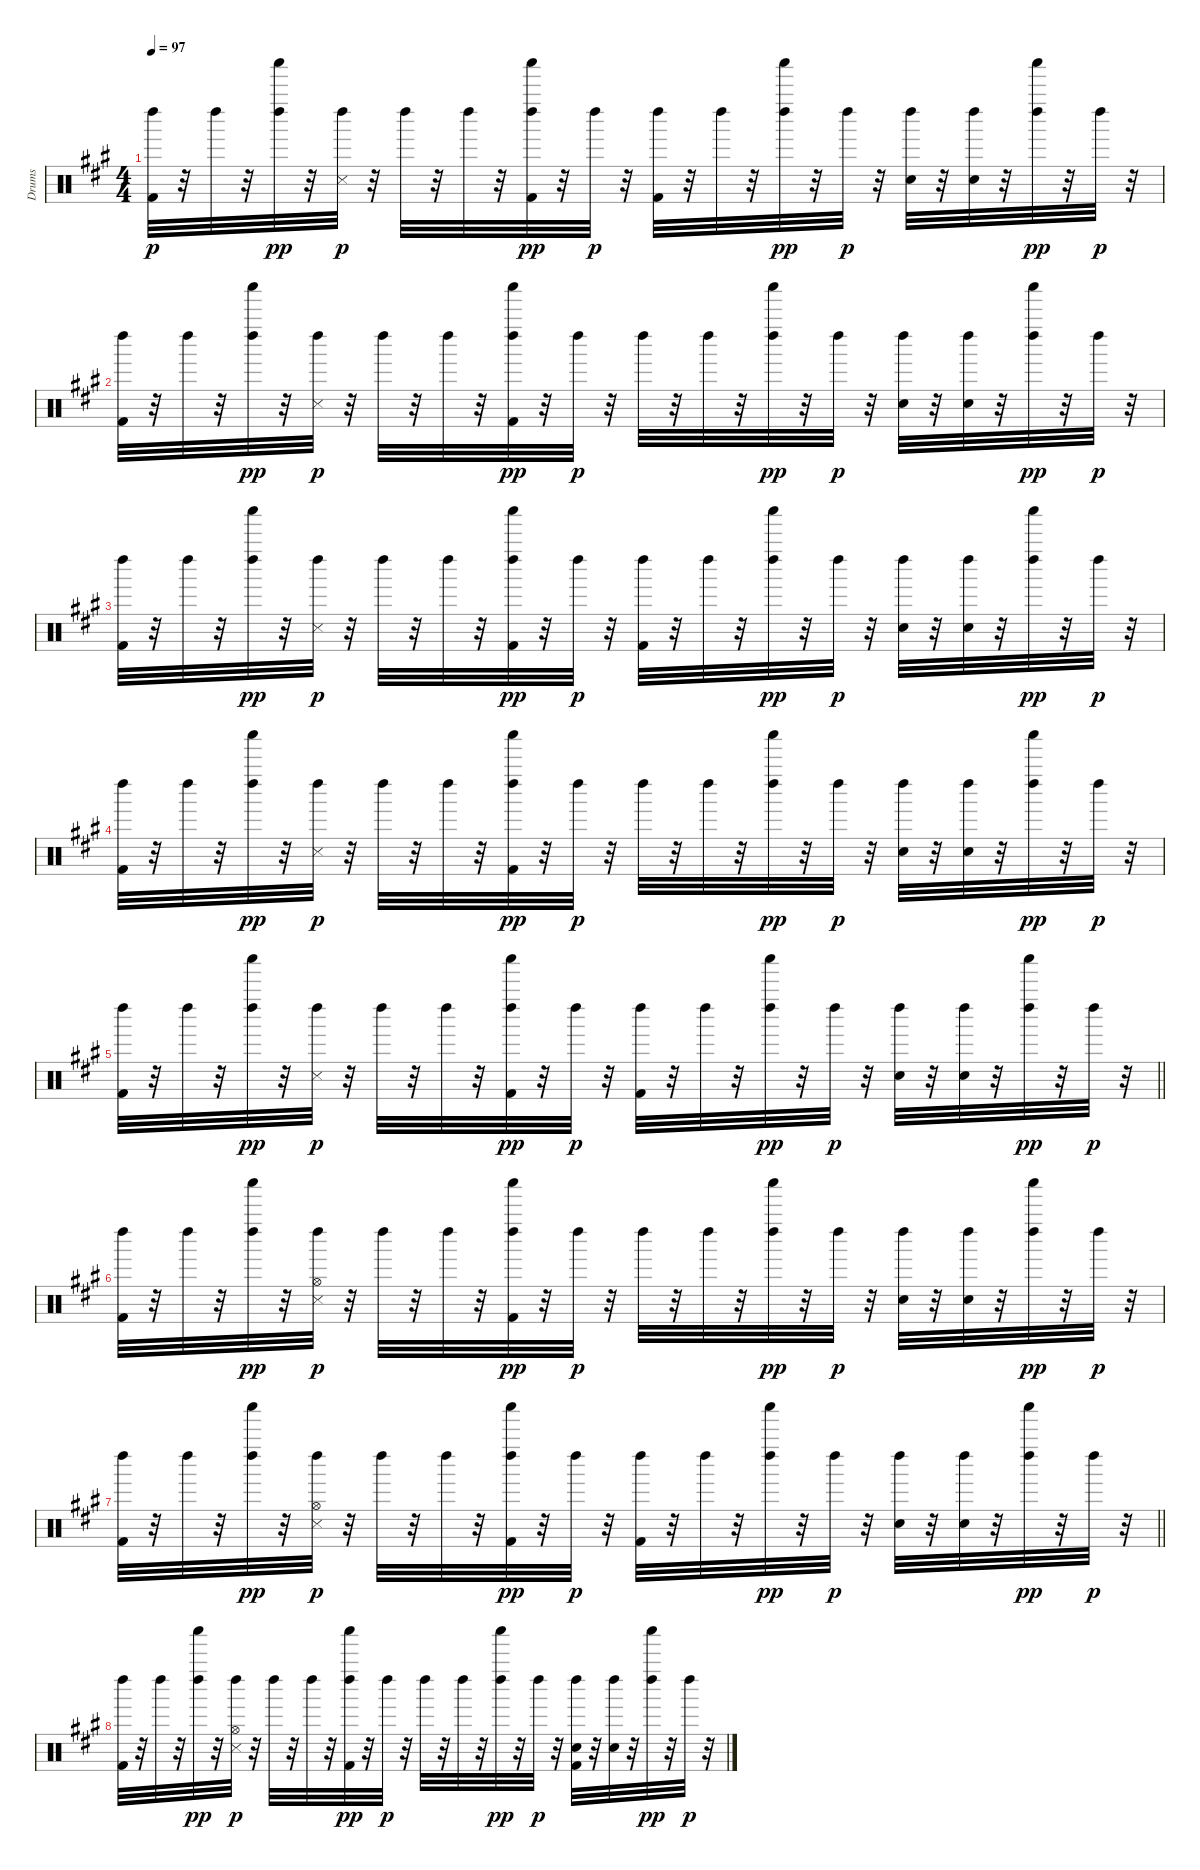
\track ("Drums" "Drums") {instrument percussion}
\staff {score}
\articulation defaults
\ts (4 4)
\tempo 97
\clef neutral
\ks a
("Kick (hit) 2" "Left Maraca (hit)").32{dy p} r.32 "Left Maraca (hit)".32 r.32 ("Shaker (hit)" "Left Maraca (hit)").32{dy pp} r.32 ("Snare (side stick) 3" "Left Maraca (hit)").32{dy p} r.32 "Left Maraca (hit)".32 r.32 "Left Maraca (hit)".32 r.32 ("Kick (hit) 2" "Shaker (hit)" "Left Maraca (hit)").32{dy pp} r.32 "Left Maraca (hit)".32{dy p} r.32 ("Kick (hit) 2" "Left Maraca (hit)").32 r.32 "Left Maraca (hit)".32 r.32 ("Shaker (hit)" "Left Maraca (hit)").32{dy pp} r.32 "Left Maraca (hit)".32{dy p} r.32 ("Hand Clap (hit)" "Left Maraca (hit)").32 r.32 ("Left Maraca (hit)" "Hand Clap (hit)").32 r.32 ("Shaker (hit)" "Left Maraca (hit)").32{dy pp} r.32 "Left Maraca (hit)".32{dy p} r.32 |
("Kick (hit) 2" "Left Maraca (hit)").32 r.32 "Left Maraca (hit)".32 r.32 ("Shaker (hit)" "Left Maraca (hit)").32{dy pp} r.32 ("Snare (side stick) 3" "Left Maraca (hit)").32{dy p} r.32 "Left Maraca (hit)".32 r.32 "Left Maraca (hit)".32 r.32 ("Kick (hit) 2" "Shaker (hit)" "Left Maraca (hit)").32{dy pp} r.32 "Left Maraca (hit)".32{dy p} r.32 "Left Maraca (hit)".32 r.32 "Left Maraca (hit)".32 r.32 ("Shaker (hit)" "Left Maraca (hit)").32{dy pp} r.32 "Left Maraca (hit)".32{dy p} r.32 ("Hand Clap (hit)" "Left Maraca (hit)").32 r.32 ("Left Maraca (hit)" "Hand Clap (hit)").32 r.32 ("Shaker (hit)" "Left Maraca (hit)").32{dy pp} r.32 "Left Maraca (hit)".32{dy p} r.32 |
("Kick (hit) 2" "Left Maraca (hit)").32 r.32 "Left Maraca (hit)".32 r.32 ("Shaker (hit)" "Left Maraca (hit)").32{dy pp} r.32 ("Snare (side stick) 3" "Left Maraca (hit)").32{dy p} r.32 "Left Maraca (hit)".32 r.32 "Left Maraca (hit)".32 r.32 ("Kick (hit) 2" "Shaker (hit)" "Left Maraca (hit)").32{dy pp} r.32 "Left Maraca (hit)".32{dy p} r.32 ("Kick (hit) 2" "Left Maraca (hit)").32 r.32 "Left Maraca (hit)".32 r.32 ("Shaker (hit)" "Left Maraca (hit)").32{dy pp} r.32 "Left Maraca (hit)".32{dy p} r.32 ("Hand Clap (hit)" "Left Maraca (hit)").32 r.32 ("Left Maraca (hit)" "Hand Clap (hit)").32 r.32 ("Shaker (hit)" "Left Maraca (hit)").32{dy pp} r.32 "Left Maraca (hit)".32{dy p} r.32 |
("Kick (hit) 2" "Left Maraca (hit)").32 r.32 "Left Maraca (hit)".32 r.32 ("Shaker (hit)" "Left Maraca (hit)").32{dy pp} r.32 ("Snare (side stick) 3" "Left Maraca (hit)").32{dy p} r.32 "Left Maraca (hit)".32 r.32 "Left Maraca (hit)".32 r.32 ("Kick (hit) 2" "Shaker (hit)" "Left Maraca (hit)").32{dy pp} r.32 "Left Maraca (hit)".32{dy p} r.32 "Left Maraca (hit)".32 r.32 "Left Maraca (hit)".32 r.32 ("Shaker (hit)" "Left Maraca (hit)").32{dy pp} r.32 "Left Maraca (hit)".32{dy p} r.32 ("Hand Clap (hit)" "Left Maraca (hit)").32 r.32 ("Left Maraca (hit)" "Hand Clap (hit)").32 r.32 ("Shaker (hit)" "Left Maraca (hit)").32{dy pp} r.32 "Left Maraca (hit)".32{dy p} r.32 |
\barLineRight lightlight
("Kick (hit) 2" "Left Maraca (hit)").32 r.32 "Left Maraca (hit)".32 r.32 ("Shaker (hit)" "Left Maraca (hit)").32{dy pp} r.32 ("Snare (side stick) 3" "Left Maraca (hit)").32{dy p} r.32 "Left Maraca (hit)".32 r.32 "Left Maraca (hit)".32 r.32 ("Kick (hit) 2" "Shaker (hit)" "Left Maraca (hit)").32{dy pp} r.32 "Left Maraca (hit)".32{dy p} r.32 ("Kick (hit) 2" "Left Maraca (hit)").32 r.32 "Left Maraca (hit)".32 r.32 ("Shaker (hit)" "Left Maraca (hit)").32{dy pp} r.32 "Left Maraca (hit)".32{dy p} r.32 ("Hand Clap (hit)" "Left Maraca (hit)").32 r.32 ("Left Maraca (hit)" "Hand Clap (hit)").32 r.32 ("Shaker (hit)" "Left Maraca (hit)").32{dy pp} r.32 "Left Maraca (hit)".32{dy p} r.32 |
("Kick (hit) 2" "Left Maraca (hit)").32 r.32 "Left Maraca (hit)".32 r.32 ("Shaker (hit)" "Left Maraca (hit)").32{dy pp} r.32 ("Hi-Hat (open)" "Snare (side stick) 3" "Left Maraca (hit)").32{dy p} r.32 "Left Maraca (hit)".32 r.32 "Left Maraca (hit)".32 r.32 ("Kick (hit) 2" "Shaker (hit)" "Left Maraca (hit)").32{dy pp} r.32 "Left Maraca (hit)".32{dy p} r.32 "Left Maraca (hit)".32 r.32 "Left Maraca (hit)".32 r.32 ("Shaker (hit)" "Left Maraca (hit)").32{dy pp} r.32 "Left Maraca (hit)".32{dy p} r.32 ("Hand Clap (hit)" "Left Maraca (hit)").32 r.32 ("Left Maraca (hit)" "Hand Clap (hit)").32 r.32 ("Shaker (hit)" "Left Maraca (hit)").32{dy pp} r.32 "Left Maraca (hit)".32{dy p} r.32 |
\barLineRight lightlight
("Kick (hit) 2" "Left Maraca (hit)").32 r.32 "Left Maraca (hit)".32 r.32 ("Shaker (hit)" "Left Maraca (hit)").32{dy pp} r.32 ("Hi-Hat (open)" "Snare (side stick) 3" "Left Maraca (hit)").32{dy p} r.32 "Left Maraca (hit)".32 r.32 "Left Maraca (hit)".32 r.32 ("Kick (hit) 2" "Shaker (hit)" "Left Maraca (hit)").32{dy pp} r.32 "Left Maraca (hit)".32{dy p} r.32 ("Kick (hit) 2" "Left Maraca (hit)").32 r.32 "Left Maraca (hit)".32 r.32 ("Shaker (hit)" "Left Maraca (hit)").32{dy pp} r.32 "Left Maraca (hit)".32{dy p} r.32 ("Hand Clap (hit)" "Left Maraca (hit)").32 r.32 ("Left Maraca (hit)" "Hand Clap (hit)").32 r.32 ("Shaker (hit)" "Left Maraca (hit)").32{dy pp} r.32 "Left Maraca (hit)".32{dy p} r.32 |
("Kick (hit) 2" "Left Maraca (hit)").32 r.32 "Left Maraca (hit)".32 r.32 ("Shaker (hit)" "Left Maraca (hit)").32{dy pp} r.32 ("Hi-Hat (open)" "Snare (side stick) 3" "Left Maraca (hit)").32{dy p} r.32 "Left Maraca (hit)".32 r.32 "Left Maraca (hit)".32 r.32 ("Kick (hit) 2" "Shaker (hit)" "Left Maraca (hit)").32{dy pp} r.32 "Left Maraca (hit)".32{dy p} r.32 "Left Maraca (hit)".32 r.32 "Left Maraca (hit)".32 r.32 ("Shaker (hit)" "Left Maraca (hit)").32{dy pp} r.32 "Left Maraca (hit)".32{dy p} r.32 ("Kick (hit) 2" "Hand Clap (hit)" "Left Maraca (hit)").32 r.32 ("Left Maraca (hit)" "Hand Clap (hit)").32 r.32 ("Shaker (hit)" "Left Maraca (hit)").32{dy pp} r.32 "Left Maraca (hit)".32{dy p} r.32
